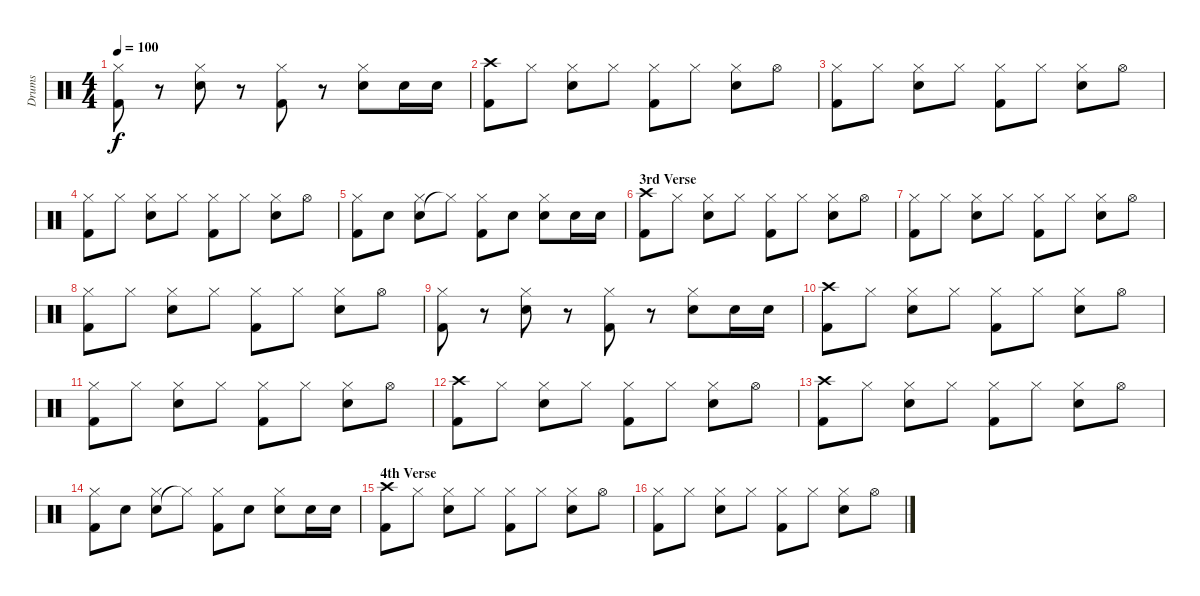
\track ("Drums" "Drums") {instrument percussion}
\staff {score}
\articulation defaults
\ts (4 4)
\tempo 100
\clef neutral
\ks c
("Kick (hit) 2" "Hi-Hat (closed)").8{dy f} r.8 ("Snare (hit) 2" "Hi-Hat (closed)").8 r.8 ("Kick (hit) 2" "Hi-Hat (closed)").8 r.8 ("Snare (hit) 2" "Hi-Hat (closed)").8 "Snare (hit) 2".16 "Snare (hit) 2".16 |
("Kick (hit) 2" "Crash high (hit)").8 "Hi-Hat (closed)".8 ("Snare (hit) 2" "Hi-Hat (closed)").8 "Hi-Hat (closed)".8 ("Kick (hit) 2" "Hi-Hat (closed)").8 "Hi-Hat (closed)".8 ("Snare (hit) 2" "Hi-Hat (closed)").8 "Hi-Hat (open)".8 |
("Kick (hit) 2" "Hi-Hat (closed)").8 "Hi-Hat (closed)".8 ("Snare (hit) 2" "Hi-Hat (closed)").8 "Hi-Hat (closed)".8 ("Kick (hit) 2" "Hi-Hat (closed)").8 "Hi-Hat (closed)".8 ("Snare (hit) 2" "Hi-Hat (closed)").8 "Hi-Hat (open)".8 |
("Kick (hit) 2" "Hi-Hat (closed)").8 "Hi-Hat (closed)".8 ("Snare (hit) 2" "Hi-Hat (closed)").8 "Hi-Hat (closed)".8 ("Kick (hit) 2" "Hi-Hat (closed)").8 "Hi-Hat (closed)".8 ("Snare (hit) 2" "Hi-Hat (closed)").8 "Hi-Hat (open)".8 |
("Kick (hit) 2" "Hi-Hat (closed)").8 "Snare (hit) 2".8 ("Snare (hit) 2" "Hi-Hat (closed)").8 "Hi-Hat (closed)"{t}.8 ("Kick (hit) 2" "Hi-Hat (closed)").8 "Snare (hit) 2".8 ("Snare (hit) 2" "Hi-Hat (closed)").8 "Snare (hit) 2".16 "Snare (hit) 2".16 |
\section ("" "3rd Verse")
("Kick (hit) 2" "Crash high (hit)").8 "Hi-Hat (closed)".8 ("Snare (hit) 2" "Hi-Hat (closed)").8 "Hi-Hat (closed)".8 ("Kick (hit) 2" "Hi-Hat (closed)").8 "Hi-Hat (closed)".8 ("Snare (hit) 2" "Hi-Hat (closed)").8 "Hi-Hat (open)".8 |
("Kick (hit) 2" "Hi-Hat (closed)").8 "Hi-Hat (closed)".8 ("Snare (hit) 2" "Hi-Hat (closed)").8 "Hi-Hat (closed)".8 ("Kick (hit) 2" "Hi-Hat (closed)").8 "Hi-Hat (closed)".8 ("Snare (hit) 2" "Hi-Hat (closed)").8 "Hi-Hat (open)".8 |
("Kick (hit) 2" "Hi-Hat (closed)").8 "Hi-Hat (closed)".8 ("Snare (hit) 2" "Hi-Hat (closed)").8 "Hi-Hat (closed)".8 ("Kick (hit) 2" "Hi-Hat (closed)").8 "Hi-Hat (closed)".8 ("Snare (hit) 2" "Hi-Hat (closed)").8 "Hi-Hat (open)".8 |
("Kick (hit) 2" "Hi-Hat (closed)").8 r.8 ("Snare (hit) 2" "Hi-Hat (closed)").8 r.8 ("Kick (hit) 2" "Hi-Hat (closed)").8 r.8 ("Snare (hit) 2" "Hi-Hat (closed)").8 "Snare (hit) 2".16 "Snare (hit) 2".16 |
("Kick (hit) 2" "Crash high (hit)").8 "Hi-Hat (closed)".8 ("Snare (hit) 2" "Hi-Hat (closed)").8 "Hi-Hat (closed)".8 ("Kick (hit) 2" "Hi-Hat (closed)").8 "Hi-Hat (closed)".8 ("Snare (hit) 2" "Hi-Hat (closed)").8 "Hi-Hat (open)".8 |
("Kick (hit) 2" "Hi-Hat (closed)").8 "Hi-Hat (closed)".8 ("Snare (hit) 2" "Hi-Hat (closed)").8 "Hi-Hat (closed)".8 ("Kick (hit) 2" "Hi-Hat (closed)").8 "Hi-Hat (closed)".8 ("Snare (hit) 2" "Hi-Hat (closed)").8 "Hi-Hat (open)".8 |
("Kick (hit) 2" "Crash high (hit)").8 "Hi-Hat (closed)".8 ("Snare (hit) 2" "Hi-Hat (closed)").8 "Hi-Hat (closed)".8 ("Kick (hit) 2" "Hi-Hat (closed)").8 "Hi-Hat (closed)".8 ("Snare (hit) 2" "Hi-Hat (closed)").8 "Hi-Hat (open)".8 |
("Kick (hit) 2" "Crash high (hit)").8 "Hi-Hat (closed)".8 ("Snare (hit) 2" "Hi-Hat (closed)").8 "Hi-Hat (closed)".8 ("Kick (hit) 2" "Hi-Hat (closed)").8 "Hi-Hat (closed)".8 ("Snare (hit) 2" "Hi-Hat (closed)").8 "Hi-Hat (open)".8 |
("Kick (hit) 2" "Hi-Hat (closed)").8 "Snare (hit) 2".8 ("Snare (hit) 2" "Hi-Hat (closed)").8 "Hi-Hat (closed)"{t}.8 ("Kick (hit) 2" "Hi-Hat (closed)").8 "Snare (hit) 2".8 ("Snare (hit) 2" "Hi-Hat (closed)").8 "Snare (hit) 2".16 "Snare (hit) 2".16 |
\section ("" "4th Verse")
("Kick (hit) 2" "Crash high (hit)").8 "Hi-Hat (closed)".8 ("Snare (hit) 2" "Hi-Hat (closed)").8 "Hi-Hat (closed)".8 ("Kick (hit) 2" "Hi-Hat (closed)").8 "Hi-Hat (closed)".8 ("Snare (hit) 2" "Hi-Hat (closed)").8 "Hi-Hat (open)".8 |
("Kick (hit) 2" "Hi-Hat (closed)").8 "Hi-Hat (closed)".8 ("Snare (hit) 2" "Hi-Hat (closed)").8 "Hi-Hat (closed)".8 ("Kick (hit) 2" "Hi-Hat (closed)").8 "Hi-Hat (closed)".8 ("Snare (hit) 2" "Hi-Hat (closed)").8 "Hi-Hat (open)".8
